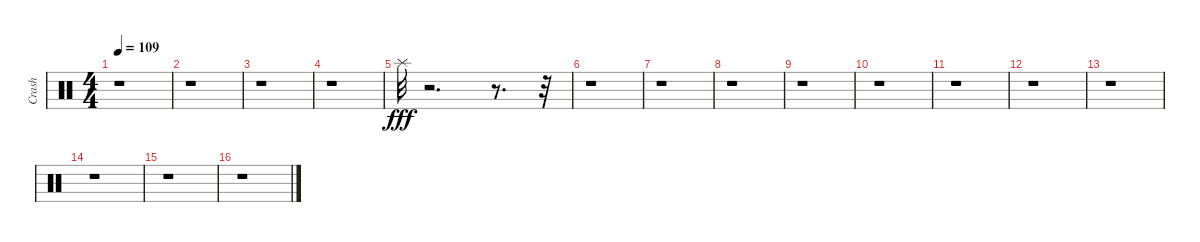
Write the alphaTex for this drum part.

\track ("Crash" "Crash") {instrument percussion}
\staff {score}
\articulation defaults
\ts (4 4)
\tempo 109
\clef neutral
\ks c
r.1{dy fff} |
r.1 |
r.1 |
r.1 |
"Splash (hit)".32 r.2{d} r.8{d} r.32 |
r.1 |
r.1 |
r.1 |
r.1 |
r.1 |
r.1 |
r.1 |
r.1 |
r.1 |
r.1 |
r.1
